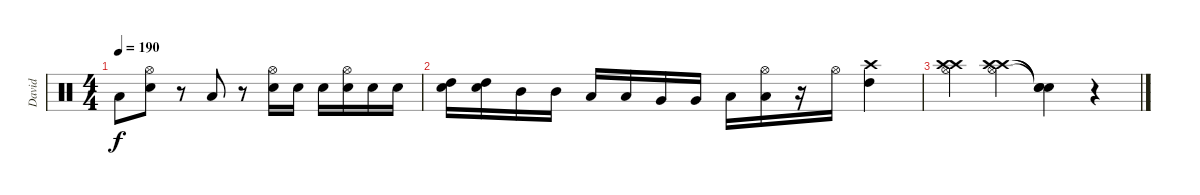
\track ("David" "David") {instrument percussion}
\staff {score}
\articulation defaults
\ts (4 4)
\tempo 190
\clef neutral
\ks c "Low Tom (hit)".8{dy f}
("Hi-Hat (open)" "Electric Snare (hit)").8 r.8 "Low Tom (hit)".8 r.8 ("Hi-Hat (open)" "Electric Snare (hit)").16 "Electric Snare (hit)".16 "Electric Snare (hit)".16 ("Hi-Hat (open)" "Electric Snare (hit)").16 "Electric Snare (hit)".16 "Electric Snare (hit)".16 |
("High Tom (hit)" "Electric Snare (hit)").16 ("High Tom (hit)" "Electric Snare (hit)").16 "Mid Tom (hit)".16 "Mid Tom (hit)".16 "Low Tom (hit)".16 "Low Tom (hit)".16 "Very Low Tom (hit)".16 "Very Low Tom (hit)".16 "Low Floor Tom (hit)".16 ("Hi-Hat (open)" "Low Floor Tom (hit)").16 r.16 "Hi-Hat (open)".16 ("Crash high (hit)" "High Tom (hit)").4 |
("Crash high (hit)" "Crash high (hit)" "Hi-Hat (open)").4 ("Crash high (hit)" "Crash high (hit)" "Hi-Hat (open)").4 ("Snare (hit)"{t} "Snare (hit)"{t} "Snare (hit)"{t}).4 r.4
